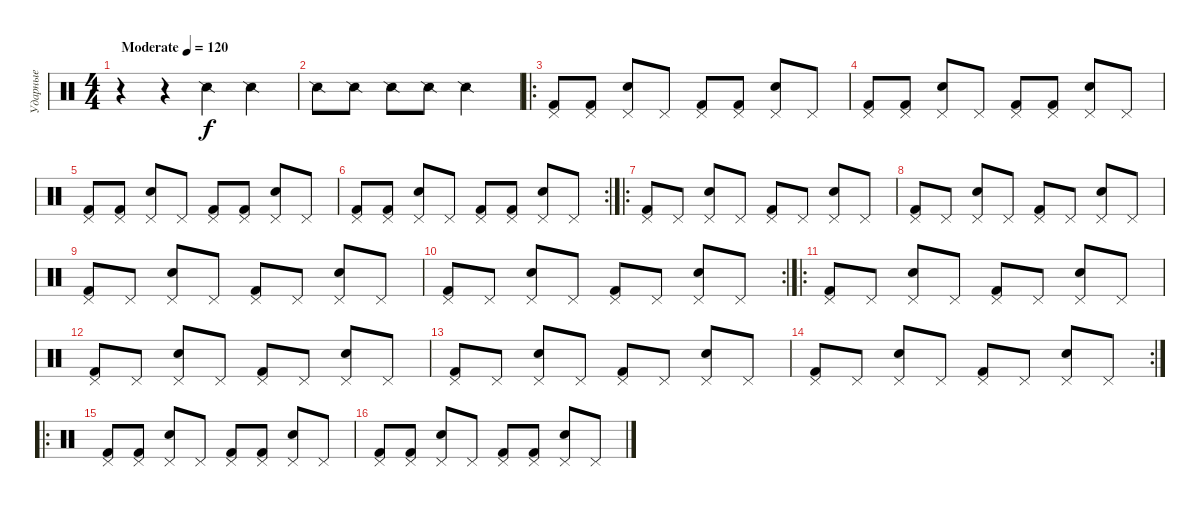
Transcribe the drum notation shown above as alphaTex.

\track ("Ударные" "Ударные") {instrument percussion}
\staff {score}
\articulation defaults
\ts (4 4)
\tempo (120 "Moderate")
\clef neutral
\ks c
r.4{dy f} r.4 "Snare (side stick) 2".4 "Snare (side stick) 2".4 |
"Snare (side stick) 2".8 "Snare (side stick) 2".8 "Snare (side stick) 2".8 "Snare (side stick) 2".8 "Snare (side stick) 2".2 |
\ro
("Pedal Hi-Hat (hit)" "Kick (hit) 2").8 ("Pedal Hi-Hat (hit)" "Kick (hit) 2").8 ("Pedal Hi-Hat (hit)" "Electric Snare (hit)").8 "Pedal Hi-Hat (hit)".8 ("Pedal Hi-Hat (hit)" "Kick (hit) 2").8 ("Pedal Hi-Hat (hit)" "Kick (hit) 2").8 ("Pedal Hi-Hat (hit)" "Electric Snare (hit)").8 "Pedal Hi-Hat (hit)".8 |
("Pedal Hi-Hat (hit)" "Kick (hit) 2").8 ("Pedal Hi-Hat (hit)" "Kick (hit) 2").8 ("Pedal Hi-Hat (hit)" "Electric Snare (hit)").8 "Pedal Hi-Hat (hit)".8 ("Pedal Hi-Hat (hit)" "Kick (hit) 2").8 ("Pedal Hi-Hat (hit)" "Kick (hit) 2").8 ("Pedal Hi-Hat (hit)" "Electric Snare (hit)").8 "Pedal Hi-Hat (hit)".8 |
("Kick (hit) 2" "Pedal Hi-Hat (hit)").8 ("Pedal Hi-Hat (hit)" "Kick (hit) 2").8 ("Pedal Hi-Hat (hit)" "Electric Snare (hit)").8 "Pedal Hi-Hat (hit)".8 ("Kick (hit) 2" "Pedal Hi-Hat (hit)").8 ("Pedal Hi-Hat (hit)" "Kick (hit) 2").8 ("Electric Snare (hit)" "Pedal Hi-Hat (hit)").8 "Pedal Hi-Hat (hit)".8 |
\rc 2
("Pedal Hi-Hat (hit)" "Kick (hit) 2").8 ("Kick (hit) 2" "Pedal Hi-Hat (hit)").8 ("Pedal Hi-Hat (hit)" "Electric Snare (hit)").8 "Pedal Hi-Hat (hit)".8 ("Kick (hit) 2" "Pedal Hi-Hat (hit)").8 ("Pedal Hi-Hat (hit)" "Kick (hit) 2").8 ("Pedal Hi-Hat (hit)" "Electric Snare (hit)").8 "Pedal Hi-Hat (hit)".8 |
\ro
("Pedal Hi-Hat (hit)" "Kick (hit) 2").8 "Pedal Hi-Hat (hit)".8 ("Snare (hit) 2" "Pedal Hi-Hat (hit)").8 "Pedal Hi-Hat (hit)".8 ("Pedal Hi-Hat (hit)" "Kick (hit) 2").8 "Pedal Hi-Hat (hit)".8 ("Pedal Hi-Hat (hit)" "Snare (hit) 2").8 "Pedal Hi-Hat (hit)".8 |
("Kick (hit) 2" "Pedal Hi-Hat (hit)").8 "Pedal Hi-Hat (hit)".8 ("Pedal Hi-Hat (hit)" "Snare (hit) 2").8 "Pedal Hi-Hat (hit)".8 ("Kick (hit) 2" "Pedal Hi-Hat (hit)").8 "Pedal Hi-Hat (hit)".8 ("Snare (hit) 2" "Pedal Hi-Hat (hit)").8 "Pedal Hi-Hat (hit)".8 |
("Pedal Hi-Hat (hit)" "Kick (hit) 2").8 "Pedal Hi-Hat (hit)".8 ("Pedal Hi-Hat (hit)" "Snare (hit) 2").8 "Pedal Hi-Hat (hit)".8 ("Pedal Hi-Hat (hit)" "Kick (hit) 2").8 "Pedal Hi-Hat (hit)".8 ("Pedal Hi-Hat (hit)" "Snare (hit) 2").8 "Pedal Hi-Hat (hit)".8 |
\rc 2
("Kick (hit) 2" "Pedal Hi-Hat (hit)").8 "Pedal Hi-Hat (hit)".8 ("Snare (hit) 2" "Pedal Hi-Hat (hit)").8 "Pedal Hi-Hat (hit)".8 ("Kick (hit) 2" "Pedal Hi-Hat (hit)").8 "Pedal Hi-Hat (hit)".8 ("Snare (hit) 2" "Pedal Hi-Hat (hit)").8 "Pedal Hi-Hat (hit)".8 |
\ro
("Pedal Hi-Hat (hit)" "Kick (hit) 2").8 "Pedal Hi-Hat (hit)".8 ("Snare (hit) 2" "Pedal Hi-Hat (hit)").8 "Pedal Hi-Hat (hit)".8 ("Pedal Hi-Hat (hit)" "Kick (hit) 2").8 "Pedal Hi-Hat (hit)".8 ("Pedal Hi-Hat (hit)" "Snare (hit) 2").8 "Pedal Hi-Hat (hit)".8 |
("Kick (hit) 2" "Pedal Hi-Hat (hit)").8 "Pedal Hi-Hat (hit)".8 ("Pedal Hi-Hat (hit)" "Snare (hit) 2").8 "Pedal Hi-Hat (hit)".8 ("Kick (hit) 2" "Pedal Hi-Hat (hit)").8 "Pedal Hi-Hat (hit)".8 ("Snare (hit) 2" "Pedal Hi-Hat (hit)").8 "Pedal Hi-Hat (hit)".8 |
("Pedal Hi-Hat (hit)" "Kick (hit) 2").8 "Pedal Hi-Hat (hit)".8 ("Pedal Hi-Hat (hit)" "Snare (hit) 2").8 "Pedal Hi-Hat (hit)".8 ("Pedal Hi-Hat (hit)" "Kick (hit) 2").8 "Pedal Hi-Hat (hit)".8 ("Pedal Hi-Hat (hit)" "Snare (hit) 2").8 "Pedal Hi-Hat (hit)".8 |
\rc 2
("Kick (hit) 2" "Pedal Hi-Hat (hit)").8 "Pedal Hi-Hat (hit)".8 ("Snare (hit) 2" "Pedal Hi-Hat (hit)").8 "Pedal Hi-Hat (hit)".8 ("Kick (hit) 2" "Pedal Hi-Hat (hit)").8 "Pedal Hi-Hat (hit)".8 ("Snare (hit) 2" "Pedal Hi-Hat (hit)").8 "Pedal Hi-Hat (hit)".8 |
\ro
("Pedal Hi-Hat (hit)" "Kick (hit) 2").8 ("Pedal Hi-Hat (hit)" "Kick (hit) 2").8 ("Pedal Hi-Hat (hit)" "Electric Snare (hit)").8 "Pedal Hi-Hat (hit)".8 ("Pedal Hi-Hat (hit)" "Kick (hit) 2").8 ("Pedal Hi-Hat (hit)" "Kick (hit) 2").8 ("Pedal Hi-Hat (hit)" "Electric Snare (hit)").8 "Pedal Hi-Hat (hit)".8 |
("Pedal Hi-Hat (hit)" "Kick (hit) 2").8 ("Pedal Hi-Hat (hit)" "Kick (hit) 2").8 ("Pedal Hi-Hat (hit)" "Electric Snare (hit)").8 "Pedal Hi-Hat (hit)".8 ("Pedal Hi-Hat (hit)" "Kick (hit) 2").8 ("Pedal Hi-Hat (hit)" "Kick (hit) 2").8 ("Pedal Hi-Hat (hit)" "Electric Snare (hit)").8 "Pedal Hi-Hat (hit)".8
